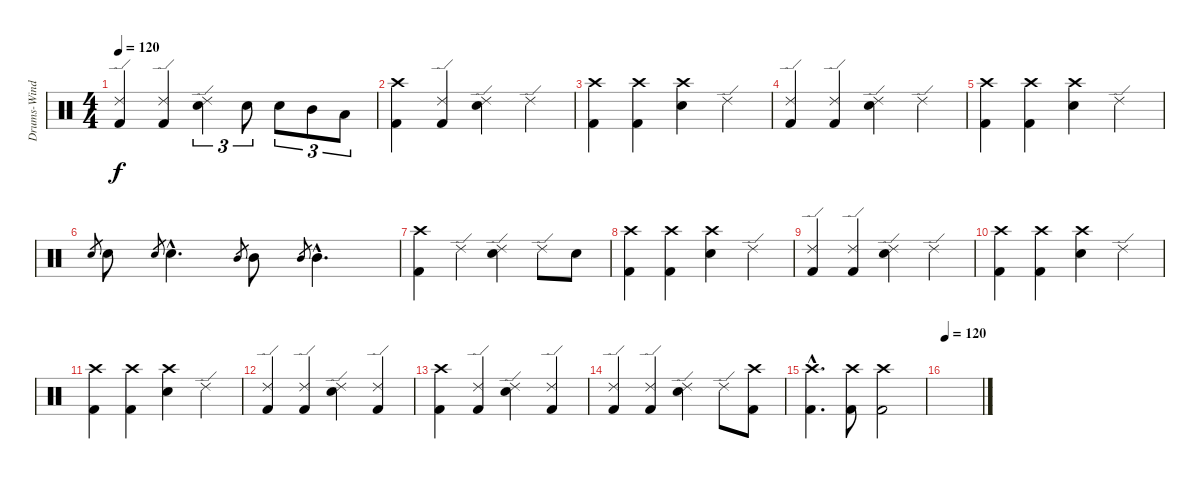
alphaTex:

\track ("Drums-Wind (Bengerg)" "Drums-Wind") {instrument percussion}
\staff {score}
\articulation defaults
\ts (4 4)
\tempo 120
\clef neutral
\ks c
("Ride (edge) 2" "Kick (hit) 2").4{dy f} ("Ride (edge) 2" "Kick (hit) 2").4 ("Ride (edge) 2" "Electric Snare (hit)").4{tu (3 2)} "Electric Snare (hit)".8{tu (3 2)} "Electric Snare (hit)".8{tu (3 2)} "Mid Tom (hit)".8{tu (3 2)} "Low Tom (hit)".8{tu (3 2)} |
("Crash high (hit)" "Kick (hit) 2").4 ("Ride (edge) 2" "Kick (hit) 2").4 ("Ride (edge) 2" "Electric Snare (hit)").4 "Ride (edge) 2".4 |
("Crash high (hit)" "Kick (hit) 2").4 ("Crash high (hit)" "Kick (hit) 2").4 ("Crash high (hit)" "Electric Snare (hit)").4 "Ride (edge) 2".4 |
("Ride (edge) 2" "Kick (hit) 2").4 ("Ride (edge) 2" "Kick (hit) 2").4 ("Ride (edge) 2" "Electric Snare (hit)").4 "Ride (edge) 2".4 |
("Crash high (hit)" "Kick (hit) 2").4 ("Crash high (hit)" "Kick (hit) 2").4 ("Crash high (hit)" "Electric Snare (hit)").4 "Ride (edge) 2".4 |
"Electric Snare (hit)".8{gr} "Electric Snare (hit)".8 "Electric Snare (hit)".8{gr} "Electric Snare (hit)"{hac}.4{d} "Mid Tom (hit)".8{gr} "Mid Tom (hit)".8 "Mid Tom (hit)".8{gr} "Mid Tom (hit)"{hac}.4{d} |
("Crash high (hit)" "Kick (hit) 2").4 "Ride (edge) 2".4 ("Ride (edge) 2" "Electric Snare (hit)").4 "Ride (edge) 2".8 "Electric Snare (hit)".8 |
("Crash high (hit)" "Kick (hit) 2").4 ("Crash high (hit)" "Kick (hit) 2").4 ("Crash high (hit)" "Electric Snare (hit)").4 "Ride (edge) 2".4 |
("Ride (edge) 2" "Kick (hit) 2").4 ("Ride (edge) 2" "Kick (hit) 2").4 ("Ride (edge) 2" "Electric Snare (hit)").4 "Ride (edge) 2".4 |
("Crash high (hit)" "Kick (hit) 2").4 ("Crash high (hit)" "Kick (hit) 2").4 ("Crash high (hit)" "Electric Snare (hit)").4 "Ride (edge) 2".4 |
("Crash high (hit)" "Kick (hit) 2").4 ("Crash high (hit)" "Kick (hit) 2").4 ("Crash high (hit)" "Electric Snare (hit)").4 "Ride (edge) 2".4 |
("Ride (edge) 2" "Kick (hit) 2").4 ("Ride (edge) 2" "Kick (hit) 2").4 ("Ride (edge) 2" "Electric Snare (hit)").4 ("Ride (edge) 2" "Kick (hit) 2").4 |
("Crash high (hit)" "Kick (hit) 2").4 ("Ride (edge) 2" "Kick (hit) 2").4 ("Ride (edge) 2" "Electric Snare (hit)").4 ("Ride (edge) 2" "Kick (hit) 2").4 |
("Ride (edge) 2" "Kick (hit) 2").4 ("Ride (edge) 2" "Kick (hit) 2").4 ("Ride (edge) 2" "Electric Snare (hit)").4 "Ride (edge) 2".8 ("Crash high (hit)" "Kick (hit) 2").8 |
("Crash high (hit)"{hac} "Kick (hit) 2"{hac}).4{d} ("Crash high (hit)" "Kick (hit) 2").8 ("Crash high (hit)" "Kick (hit) 2").2 |
\tempo 120
